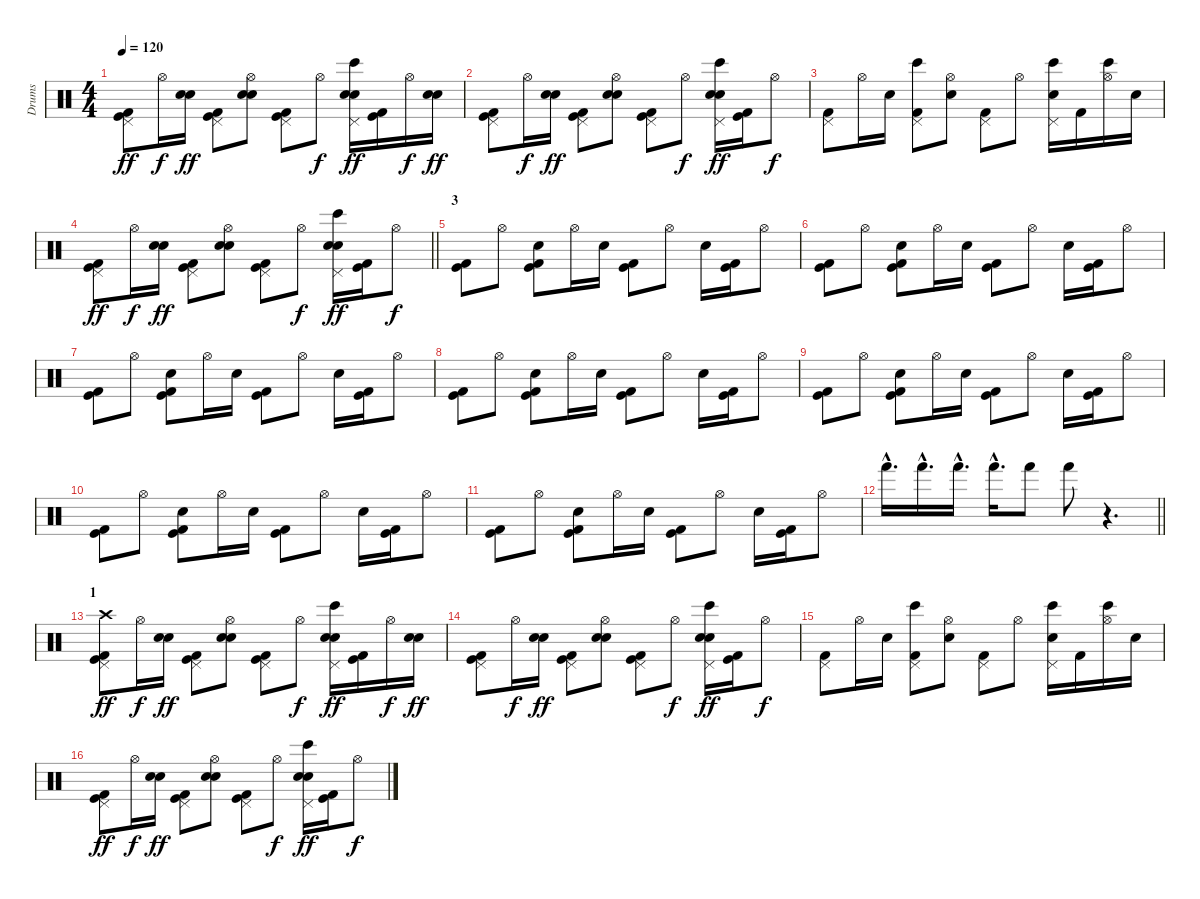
\track ("Drums" "Drums") {instrument percussion}
\staff {score}
\articulation defaults
\ts (4 4)
\tempo 120
\clef neutral
\ks c
("Pedal Hi-Hat (hit)" "Kick (hit)" "Kick (hit) 2").8{dy ff} "Hi-Hat (open)".16{dy f} ("Snare (hit) 2" "Electric Snare (hit)").16{dy ff} ("Pedal Hi-Hat (hit)" "Kick (hit)" "Kick (hit) 2").8 ("Hi-Hat (open)" "Snare (hit) 2" "Electric Snare (hit)").8 ("Pedal Hi-Hat (hit)" "Kick (hit)" "Kick (hit) 2").8 "Hi-Hat (open)".8{dy f} ("Pedal Hi-Hat (hit)" "Bongo High (hit)" "Snare (hit) 2" "Electric Snare (hit)").16{dy ff} ("Kick (hit)" "Kick (hit) 2").16 "Hi-Hat (open)".16{dy f} ("Snare (hit) 2" "Electric Snare (hit)").16{dy ff} |
("Pedal Hi-Hat (hit)" "Kick (hit)" "Kick (hit) 2").8 "Hi-Hat (open)".16{dy f} ("Snare (hit) 2" "Electric Snare (hit)").16{dy ff} ("Pedal Hi-Hat (hit)" "Kick (hit)" "Kick (hit) 2").8 ("Hi-Hat (open)" "Snare (hit) 2" "Electric Snare (hit)").8 ("Pedal Hi-Hat (hit)" "Kick (hit)" "Kick (hit) 2").8 "Hi-Hat (open)".8{dy f} ("Pedal Hi-Hat (hit)" "Bongo High (hit)" "Snare (hit) 2" "Electric Snare (hit)").16{dy ff} ("Kick (hit)" "Kick (hit) 2").16 "Hi-Hat (open)".8{dy f} |
("Pedal Hi-Hat (hit)" "Kick (hit) 2").8 "Hi-Hat (open)".16 "Snare (hit) 2".16 ("Pedal Hi-Hat (hit)" "Bongo High (hit)" "Kick (hit) 2").8 ("Hi-Hat (open)" "Snare (hit) 2").8 ("Pedal Hi-Hat (hit)" "Kick (hit) 2").8 "Hi-Hat (open)".8 ("Pedal Hi-Hat (hit)" "Bongo High (hit)" "Snare (hit) 2").16 "Kick (hit) 2".16 ("Hi-Hat (open)" "Bongo High (hit)").16 "Snare (hit) 2".16 |
\barLineRight lightlight
("Pedal Hi-Hat (hit)" "Kick (hit)" "Kick (hit) 2").8{dy ff} "Hi-Hat (open)".16{dy f} ("Snare (hit) 2" "Electric Snare (hit)").16{dy ff} ("Pedal Hi-Hat (hit)" "Kick (hit)" "Kick (hit) 2").8 ("Hi-Hat (open)" "Snare (hit) 2" "Electric Snare (hit)").8 ("Pedal Hi-Hat (hit)" "Kick (hit)" "Kick (hit) 2").8 "Hi-Hat (open)".8{dy f} ("Pedal Hi-Hat (hit)" "Bongo High (hit)" "Snare (hit) 2" "Electric Snare (hit)").16{dy ff} ("Kick (hit)" "Kick (hit) 2").16 "Hi-Hat (open)".8{dy f} |
\section ("" "3")
("Kick (hit)" "Kick (hit) 2").8 "Hi-Hat (open)".8 ("Snare (hit) 2" "Kick (hit)" "Kick (hit) 2").8 "Hi-Hat (open)".16 "Snare (hit) 2".16 ("Kick (hit)" "Kick (hit) 2").8 "Hi-Hat (open)".8 "Snare (hit) 2".16 ("Kick (hit)" "Kick (hit) 2").16 "Hi-Hat (open)".8 |
("Kick (hit)" "Kick (hit) 2").8 "Hi-Hat (open)".8 ("Snare (hit) 2" "Kick (hit)" "Kick (hit) 2").8 "Hi-Hat (open)".16 "Snare (hit) 2".16 ("Kick (hit)" "Kick (hit) 2").8 "Hi-Hat (open)".8 "Snare (hit) 2".16 ("Kick (hit)" "Kick (hit) 2").16 "Hi-Hat (open)".8 |
("Kick (hit)" "Kick (hit) 2").8 "Hi-Hat (open)".8 ("Snare (hit) 2" "Kick (hit)" "Kick (hit) 2").8 "Hi-Hat (open)".16 "Snare (hit) 2".16 ("Kick (hit)" "Kick (hit) 2").8 "Hi-Hat (open)".8 "Snare (hit) 2".16 ("Kick (hit)" "Kick (hit) 2").16 "Hi-Hat (open)".8 |
("Kick (hit)" "Kick (hit) 2").8 "Hi-Hat (open)".8 ("Snare (hit) 2" "Kick (hit)" "Kick (hit) 2").8 "Hi-Hat (open)".16 "Snare (hit) 2".16 ("Kick (hit)" "Kick (hit) 2").8 "Hi-Hat (open)".8 "Snare (hit) 2".16 ("Kick (hit)" "Kick (hit) 2").16 "Hi-Hat (open)".8 |
("Kick (hit)" "Kick (hit) 2").8 "Hi-Hat (open)".8 ("Snare (hit) 2" "Kick (hit)" "Kick (hit) 2").8 "Hi-Hat (open)".16 "Snare (hit) 2".16 ("Kick (hit)" "Kick (hit) 2").8 "Hi-Hat (open)".8 "Snare (hit) 2".16 ("Kick (hit)" "Kick (hit) 2").16 "Hi-Hat (open)".8 |
("Kick (hit)" "Kick (hit) 2").8 "Hi-Hat (open)".8 ("Snare (hit) 2" "Kick (hit)" "Kick (hit) 2").8 "Hi-Hat (open)".16 "Snare (hit) 2".16 ("Kick (hit)" "Kick (hit) 2").8 "Hi-Hat (open)".8 "Snare (hit) 2".16 ("Kick (hit)" "Kick (hit) 2").16 "Hi-Hat (open)".8 |
("Kick (hit)" "Kick (hit) 2").8 "Hi-Hat (open)".8 ("Snare (hit) 2" "Kick (hit)" "Kick (hit) 2").8 "Hi-Hat (open)".16 "Snare (hit) 2".16 ("Kick (hit)" "Kick (hit) 2").8 "Hi-Hat (open)".8 "Snare (hit) 2".16 ("Kick (hit)" "Kick (hit) 2").16 "Hi-Hat (open)".8 |
\barLineRight lightlight "Hand (hit)"{hac}.16{d} "Hand (hit)"{hac}.16{d} "Hand (hit)"{hac}.16{d} "Hand (hit)"{hac}.16{d} "Hand (hit)".8 "Hand (hit)".8
r.4{d} |
\section ("" "1")
("Crash high (hit)" "Pedal Hi-Hat (hit)" "Kick (hit)" "Kick (hit) 2").8{dy ff} "Hi-Hat (open)".16{dy f} ("Snare (hit) 2" "Electric Snare (hit)").16{dy ff} ("Pedal Hi-Hat (hit)" "Kick (hit)" "Kick (hit) 2").8 ("Hi-Hat (open)" "Snare (hit) 2" "Electric Snare (hit)").8 ("Pedal Hi-Hat (hit)" "Kick (hit)" "Kick (hit) 2").8 "Hi-Hat (open)".8{dy f} ("Pedal Hi-Hat (hit)" "Bongo High (hit)" "Snare (hit) 2" "Electric Snare (hit)").16{dy ff} ("Kick (hit)" "Kick (hit) 2").16 "Hi-Hat (open)".16{dy f} ("Snare (hit) 2" "Electric Snare (hit)").16{dy ff} |
("Pedal Hi-Hat (hit)" "Kick (hit)" "Kick (hit) 2").8 "Hi-Hat (open)".16{dy f} ("Snare (hit) 2" "Electric Snare (hit)").16{dy ff} ("Pedal Hi-Hat (hit)" "Kick (hit)" "Kick (hit) 2").8 ("Hi-Hat (open)" "Snare (hit) 2" "Electric Snare (hit)").8 ("Pedal Hi-Hat (hit)" "Kick (hit)" "Kick (hit) 2").8 "Hi-Hat (open)".8{dy f} ("Pedal Hi-Hat (hit)" "Bongo High (hit)" "Snare (hit) 2" "Electric Snare (hit)").16{dy ff} ("Kick (hit)" "Kick (hit) 2").16 "Hi-Hat (open)".8{dy f} |
("Pedal Hi-Hat (hit)" "Kick (hit) 2").8 "Hi-Hat (open)".16 "Snare (hit) 2".16 ("Pedal Hi-Hat (hit)" "Bongo High (hit)" "Kick (hit) 2").8 ("Hi-Hat (open)" "Snare (hit) 2").8 ("Pedal Hi-Hat (hit)" "Kick (hit) 2").8 "Hi-Hat (open)".8 ("Pedal Hi-Hat (hit)" "Bongo High (hit)" "Snare (hit) 2").16 "Kick (hit) 2".16 ("Hi-Hat (open)" "Bongo High (hit)").16 "Snare (hit) 2".16 |
("Pedal Hi-Hat (hit)" "Kick (hit)" "Kick (hit) 2").8{dy ff} "Hi-Hat (open)".16{dy f} ("Snare (hit) 2" "Electric Snare (hit)").16{dy ff} ("Pedal Hi-Hat (hit)" "Kick (hit)" "Kick (hit) 2").8 ("Hi-Hat (open)" "Snare (hit) 2" "Electric Snare (hit)").8 ("Pedal Hi-Hat (hit)" "Kick (hit)" "Kick (hit) 2").8 "Hi-Hat (open)".8{dy f} ("Pedal Hi-Hat (hit)" "Bongo High (hit)" "Snare (hit) 2" "Electric Snare (hit)").16{dy ff} ("Kick (hit)" "Kick (hit) 2").16 "Hi-Hat (open)".8{dy f}
